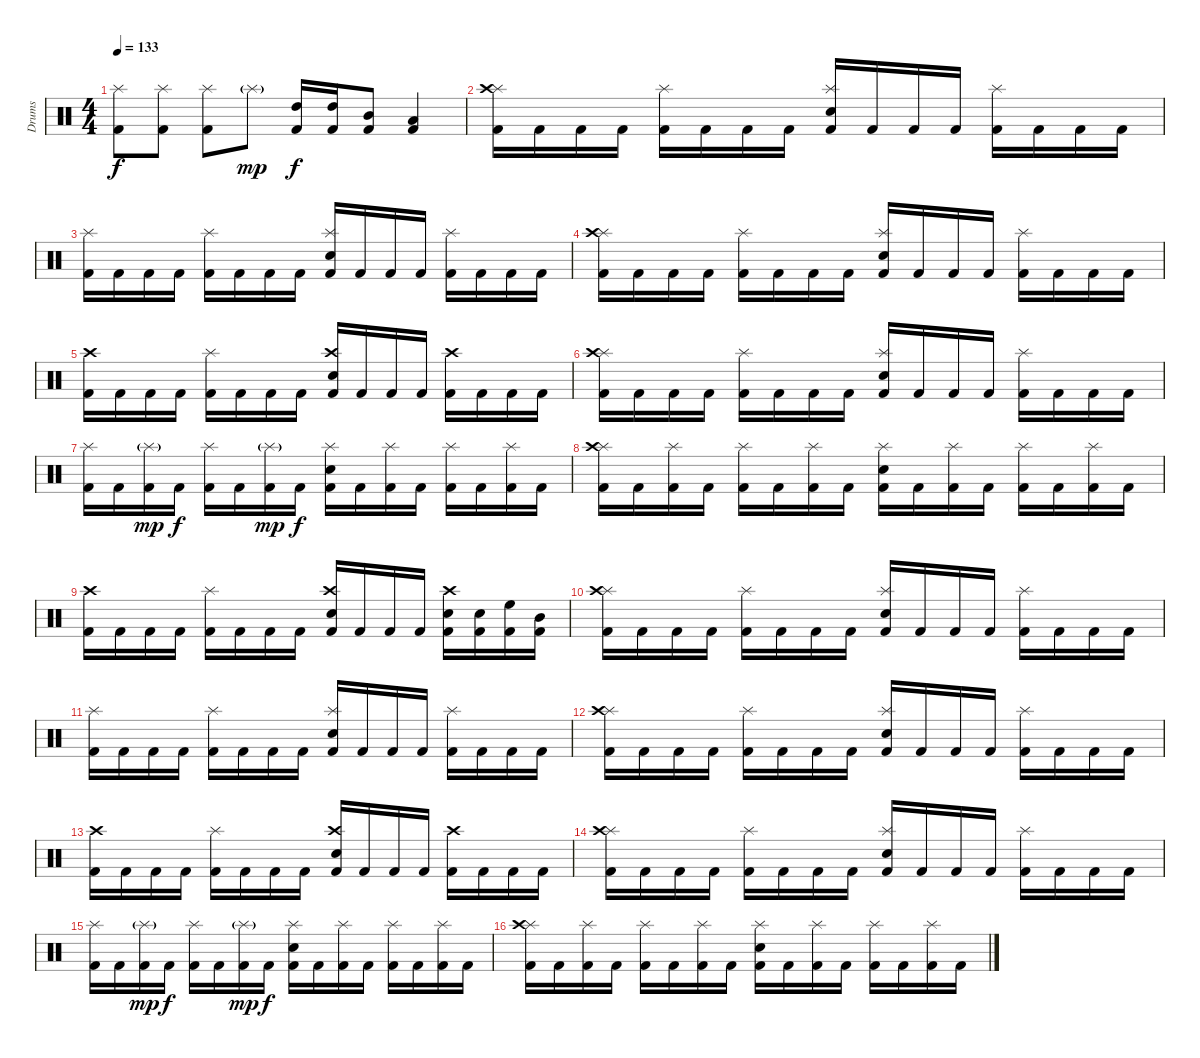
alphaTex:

\track ("Drums" "Drums") {instrument percussion}
\staff {score}
\articulation defaults
\ts (4 4)
\tempo 133
\clef neutral
\ks c
("Kick (hit) 2" "Splash (hit)").8{dy f} ("Kick (hit) 2" "Splash (hit)").8 ("Kick (hit) 2" "Splash (hit)").8 "Splash (hit)"{g}.8{dy mp} ("Kick (hit) 2" "High Tom (hit)").16{dy f} ("Kick (hit) 2" "High Tom (hit)").16 ("Kick (hit) 2" "Mid Tom (hit)").8 ("Kick (hit) 2" "Low Tom (hit)").4 |
("Kick (hit) 2" "Splash (hit)" "Crash high (hit)").16 "Kick (hit) 2".16 "Kick (hit) 2".16 "Kick (hit) 2".16 ("Kick (hit) 2" "Splash (hit)").16 "Kick (hit) 2".16 "Kick (hit) 2".16 "Kick (hit) 2".16 ("Kick (hit) 2" "Snare (hit) 2" "Splash (hit)").16 "Kick (hit) 2".16 "Kick (hit) 2".16 "Kick (hit) 2".16 ("Kick (hit) 2" "Splash (hit)").16 "Kick (hit) 2".16 "Kick (hit) 2".16 "Kick (hit) 2".16 |
("Kick (hit) 2" "Splash (hit)").16 "Kick (hit) 2".16 "Kick (hit) 2".16 "Kick (hit) 2".16 ("Kick (hit) 2" "Splash (hit)").16 "Kick (hit) 2".16 "Kick (hit) 2".16 "Kick (hit) 2".16 ("Kick (hit) 2" "Snare (hit) 2" "Splash (hit)").16 "Kick (hit) 2".16 "Kick (hit) 2".16 "Kick (hit) 2".16 ("Kick (hit) 2" "Splash (hit)").16 "Kick (hit) 2".16 "Kick (hit) 2".16 "Kick (hit) 2".16 |
("Kick (hit) 2" "Splash (hit)" "Crash high (hit)").16 "Kick (hit) 2".16 "Kick (hit) 2".16 "Kick (hit) 2".16 ("Kick (hit) 2" "Splash (hit)").16 "Kick (hit) 2".16 "Kick (hit) 2".16 "Kick (hit) 2".16 ("Kick (hit) 2" "Snare (hit) 2" "Splash (hit)").16 "Kick (hit) 2".16 "Kick (hit) 2".16 "Kick (hit) 2".16 ("Kick (hit) 2" "Splash (hit)").16 "Kick (hit) 2".16 "Kick (hit) 2".16 "Kick (hit) 2".16 |
("Kick (hit) 2" "Crash high (hit)").16 "Kick (hit) 2".16 "Kick (hit) 2".16 "Kick (hit) 2".16 ("Kick (hit) 2" "Splash (hit)").16 "Kick (hit) 2".16 "Kick (hit) 2".16 "Kick (hit) 2".16 ("Kick (hit) 2" "Snare (hit) 2" "Crash high (hit)").16 "Kick (hit) 2".16 "Kick (hit) 2".16 "Kick (hit) 2".16 ("Kick (hit) 2" "Crash high (hit)").16 "Kick (hit) 2".16 "Kick (hit) 2".16 "Kick (hit) 2".16 |
("Kick (hit) 2" "Splash (hit)" "Crash high (hit)").16 "Kick (hit) 2".16 "Kick (hit) 2".16 "Kick (hit) 2".16 ("Kick (hit) 2" "Splash (hit)").16 "Kick (hit) 2".16 "Kick (hit) 2".16 "Kick (hit) 2".16 ("Kick (hit) 2" "Snare (hit) 2" "Splash (hit)").16 "Kick (hit) 2".16 "Kick (hit) 2".16 "Kick (hit) 2".16 ("Kick (hit) 2" "Splash (hit)").16 "Kick (hit) 2".16 "Kick (hit) 2".16 "Kick (hit) 2".16 |
("Kick (hit) 2" "Splash (hit)").16 "Kick (hit) 2".16 ("Kick (hit) 2" "Splash (hit)"{g}).16{dy mp} "Kick (hit) 2".16{dy f} ("Kick (hit) 2" "Splash (hit)").16 "Kick (hit) 2".16 ("Kick (hit) 2" "Splash (hit)"{g}).16{dy mp} "Kick (hit) 2".16{dy f} ("Kick (hit) 2" "Snare (hit) 2" "Splash (hit)").16 "Kick (hit) 2".16 ("Kick (hit) 2" "Splash (hit)").16 "Kick (hit) 2".16 ("Kick (hit) 2" "Splash (hit)").16 "Kick (hit) 2".16 ("Kick (hit) 2" "Splash (hit)").16 "Kick (hit) 2".16 |
("Kick (hit) 2" "Splash (hit)" "Crash high (hit)").16 "Kick (hit) 2".16 ("Kick (hit) 2" "Splash (hit)").16 "Kick (hit) 2".16 ("Kick (hit) 2" "Splash (hit)").16 "Kick (hit) 2".16 ("Kick (hit) 2" "Splash (hit)").16 "Kick (hit) 2".16 ("Kick (hit) 2" "Snare (hit) 2" "Splash (hit)").16 "Kick (hit) 2".16 ("Kick (hit) 2" "Splash (hit)").16 "Kick (hit) 2".16 ("Kick (hit) 2" "Splash (hit)").16 "Kick (hit) 2".16 ("Kick (hit) 2" "Splash (hit)").16 "Kick (hit) 2".16 |
("Kick (hit) 2" "Crash high (hit)").16 "Kick (hit) 2".16 "Kick (hit) 2".16 "Kick (hit) 2".16 ("Kick (hit) 2" "Splash (hit)").16 "Kick (hit) 2".16 "Kick (hit) 2".16 "Kick (hit) 2".16 ("Kick (hit) 2" "Snare (hit) 2" "Crash high (hit)").16 "Kick (hit) 2".16 "Kick (hit) 2".16 "Kick (hit) 2".16 ("Kick (hit) 2" "Snare (hit) 2" "Crash high (hit)").16 ("Kick (hit) 2" "Snare (hit) 2").16 ("Kick (hit) 2" "High Floor Tom (hit)").16 ("Kick (hit) 2" "Mid Tom (hit)").16 |
("Kick (hit) 2" "Splash (hit)" "Crash high (hit)").16 "Kick (hit) 2".16 "Kick (hit) 2".16 "Kick (hit) 2".16 ("Kick (hit) 2" "Splash (hit)").16 "Kick (hit) 2".16 "Kick (hit) 2".16 "Kick (hit) 2".16 ("Kick (hit) 2" "Snare (hit) 2" "Splash (hit)").16 "Kick (hit) 2".16 "Kick (hit) 2".16 "Kick (hit) 2".16 ("Kick (hit) 2" "Splash (hit)").16 "Kick (hit) 2".16 "Kick (hit) 2".16 "Kick (hit) 2".16 |
("Kick (hit) 2" "Splash (hit)").16 "Kick (hit) 2".16 "Kick (hit) 2".16 "Kick (hit) 2".16 ("Kick (hit) 2" "Splash (hit)").16 "Kick (hit) 2".16 "Kick (hit) 2".16 "Kick (hit) 2".16 ("Kick (hit) 2" "Snare (hit) 2" "Splash (hit)").16 "Kick (hit) 2".16 "Kick (hit) 2".16 "Kick (hit) 2".16 ("Kick (hit) 2" "Splash (hit)").16 "Kick (hit) 2".16 "Kick (hit) 2".16 "Kick (hit) 2".16 |
("Kick (hit) 2" "Splash (hit)" "Crash high (hit)").16 "Kick (hit) 2".16 "Kick (hit) 2".16 "Kick (hit) 2".16 ("Kick (hit) 2" "Splash (hit)").16 "Kick (hit) 2".16 "Kick (hit) 2".16 "Kick (hit) 2".16 ("Kick (hit) 2" "Snare (hit) 2" "Splash (hit)").16 "Kick (hit) 2".16 "Kick (hit) 2".16 "Kick (hit) 2".16 ("Kick (hit) 2" "Splash (hit)").16 "Kick (hit) 2".16 "Kick (hit) 2".16 "Kick (hit) 2".16 |
("Kick (hit) 2" "Crash high (hit)").16 "Kick (hit) 2".16 "Kick (hit) 2".16 "Kick (hit) 2".16 ("Kick (hit) 2" "Splash (hit)").16 "Kick (hit) 2".16 "Kick (hit) 2".16 "Kick (hit) 2".16 ("Kick (hit) 2" "Snare (hit) 2" "Crash high (hit)").16 "Kick (hit) 2".16 "Kick (hit) 2".16 "Kick (hit) 2".16 ("Kick (hit) 2" "Crash high (hit)").16 "Kick (hit) 2".16 "Kick (hit) 2".16 "Kick (hit) 2".16 |
("Kick (hit) 2" "Splash (hit)" "Crash high (hit)").16 "Kick (hit) 2".16 "Kick (hit) 2".16 "Kick (hit) 2".16 ("Kick (hit) 2" "Splash (hit)").16 "Kick (hit) 2".16 "Kick (hit) 2".16 "Kick (hit) 2".16 ("Kick (hit) 2" "Snare (hit) 2" "Splash (hit)").16 "Kick (hit) 2".16 "Kick (hit) 2".16 "Kick (hit) 2".16 ("Kick (hit) 2" "Splash (hit)").16 "Kick (hit) 2".16 "Kick (hit) 2".16 "Kick (hit) 2".16 |
("Kick (hit) 2" "Splash (hit)").16 "Kick (hit) 2".16 ("Kick (hit) 2" "Splash (hit)"{g}).16{dy mp} "Kick (hit) 2".16{dy f} ("Kick (hit) 2" "Splash (hit)").16 "Kick (hit) 2".16 ("Kick (hit) 2" "Splash (hit)"{g}).16{dy mp} "Kick (hit) 2".16{dy f} ("Kick (hit) 2" "Snare (hit) 2" "Splash (hit)").16 "Kick (hit) 2".16 ("Kick (hit) 2" "Splash (hit)").16 "Kick (hit) 2".16 ("Kick (hit) 2" "Splash (hit)").16 "Kick (hit) 2".16 ("Kick (hit) 2" "Splash (hit)").16 "Kick (hit) 2".16 |
("Kick (hit) 2" "Splash (hit)" "Crash high (hit)").16 "Kick (hit) 2".16 ("Kick (hit) 2" "Splash (hit)").16 "Kick (hit) 2".16 ("Kick (hit) 2" "Splash (hit)").16 "Kick (hit) 2".16 ("Kick (hit) 2" "Splash (hit)").16 "Kick (hit) 2".16 ("Kick (hit) 2" "Snare (hit) 2" "Splash (hit)").16 "Kick (hit) 2".16 ("Kick (hit) 2" "Splash (hit)").16 "Kick (hit) 2".16 ("Kick (hit) 2" "Splash (hit)").16 "Kick (hit) 2".16 ("Kick (hit) 2" "Splash (hit)").16 "Kick (hit) 2".16
